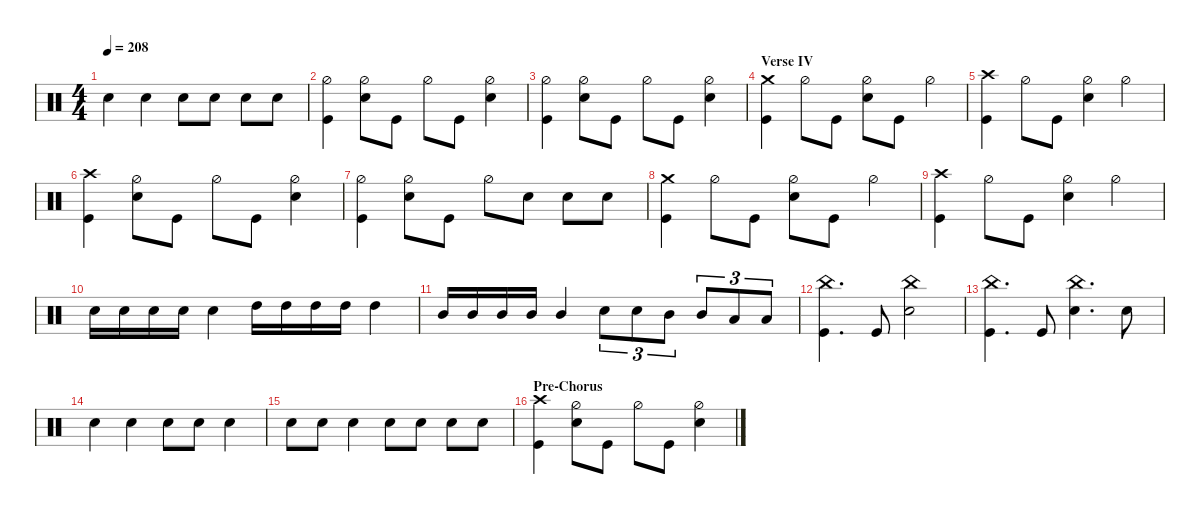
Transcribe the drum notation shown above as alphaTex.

\defaultSystemsLayout 4
\hideDynamics
\bracketExtendMode nobrackets
\singleTrackTrackNamePolicy hidden
\multiTrackTrackNamePolicy hidden
\otherSystemsTrackNameOrientation horizontal
\track ("Drums" "drm.") {multiBarRest instrument percussion}
\staff {score}
\articulation defaults
\ts (4 4)
\tempo 208
\clef neutral
\ks c "Snare (hit) 2".4{dy f beam Down} "Snare (hit) 2".4{beam Down} "Snare (hit) 2".8{beam Down} "Snare (hit) 2".8{beam Down} "Snare (hit) 2".8{beam Down} "Snare (hit) 2".8{beam Down}
|
("Kick (hit)" "Hi-Hat (half)").4{beam Down} ("Snare (hit) 2" "Hi-Hat (half)").8{beam Down} "Kick (hit)".8{beam Down} "Hi-Hat (half)".8{beam Down} "Kick (hit)".8{beam Down} ("Snare (hit) 2" "Hi-Hat (half)").4{beam Down} |
("Kick (hit)" "Hi-Hat (half)").4{beam Down} ("Snare (hit) 2" "Hi-Hat (half)").8{beam Down} "Kick (hit)".8{beam Down} "Hi-Hat (half)".8{beam Down} "Kick (hit)".8{beam Down} ("Snare (hit) 2" "Hi-Hat (half)").4{beam Down} |
\section ("" "Verse IV")
("Crash medium (hit)" "Kick (hit)").4{beam Down} "Hi-Hat (half)".8{beam Down} "Kick (hit)".8{beam Down} ("Hi-Hat (half)" "Snare (hit) 2").8{beam Down} "Kick (hit)".8{beam Down} "Hi-Hat (half)".4{beam Down} |
("Kick (hit)" "Crash high (hit)").4{beam Down} "Hi-Hat (half)".8{beam Down} "Kick (hit)".8{beam Down} ("Snare (hit) 2" "Hi-Hat (half)").4{beam Down} "Hi-Hat (half)".4{beam Down} |
("Crash high (hit)" "Kick (hit)").4{beam Down} ("Snare (hit) 2" "Hi-Hat (half)").8{beam Down} "Kick (hit)".8{beam Down} "Hi-Hat (half)".8{beam Down} "Kick (hit)".8{beam Down} ("Snare (hit) 2" "Hi-Hat (half)").4{beam Down} |
("Kick (hit)" "Hi-Hat (half)").4{beam Down} ("Snare (hit) 2" "Hi-Hat (half)").8{beam Down} "Kick (hit)".8{beam Down} "Hi-Hat (half)".8{beam Down} "Snare (hit) 2".8{beam Down} "Snare (hit) 2".8{beam Down} "Snare (hit) 2".8{beam Down} |
("Crash medium (hit)" "Kick (hit)").4{beam Down} "Hi-Hat (half)".8{beam Down} "Kick (hit)".8{beam Down} ("Hi-Hat (half)" "Snare (hit) 2").8{beam Down} "Kick (hit)".8{beam Down} "Hi-Hat (half)".4{beam Down} |
("Kick (hit)" "Crash high (hit)").4{beam Down} "Hi-Hat (half)".8{beam Down} "Kick (hit)".8{beam Down} ("Snare (hit) 2" "Hi-Hat (half)").4{beam Down} "Hi-Hat (half)".4{beam Down} |
"Snare (hit) 2".16{beam Down} "Snare (hit) 2".16{beam Down} "Snare (hit) 2".16{beam Down} "Snare (hit) 2".16{beam Down} "Snare (hit) 2".4{beam Down} "High Tom (hit)".16{dy ff beam Down} "High Tom (hit)".16{beam Down} "High Tom (hit)".16{beam Down} "High Tom (hit)".16{beam Down} "High Tom (hit)".4{beam Down} |
"Mid Tom (hit)".16{beam Up} "Mid Tom (hit)".16{beam Up} "Mid Tom (hit)".16{beam Up} "Mid Tom (hit)".16{beam Up} "Mid Tom (hit)".4{beam Up} "Snare (hit) 2".8{tu (3 2) dy f beam Down} "Snare (hit) 2".8{tu (3 2) beam Down} "Mid Tom (hit)".8{tu (3 2) dy ff beam Down} "Mid Tom (hit)".8{tu (3 2) beam Up} "Low Tom (hit)".8{tu (3 2) beam Up} "Low Tom (hit)".8{tu (3 2) beam Up} |
("China (hit)" "Kick (hit)").4{d dy f beam Down} "Kick (hit)".8{beam Up} ("Snare (hit) 2" "China (hit)").2{beam Down} |
("China (hit)" "Kick (hit)").4{d beam Down} "Kick (hit)".8{beam Up} ("Snare (hit) 2" "China (hit)").4{d beam Down} "Snare (hit) 2".8{beam Down} |
"Snare (hit) 2".4{beam Down} "Snare (hit) 2".4{beam Down} "Snare (hit) 2".8{beam Down} "Snare (hit) 2".8{beam Down} "Snare (hit) 2".4{beam Down} |
"Snare (hit) 2".8{beam Down} "Snare (hit) 2".8{beam Down} "Snare (hit) 2".4{beam Down} "Snare (hit) 2".8{beam Down} "Snare (hit) 2".8{beam Down} "Snare (hit) 2".8{beam Down} "Snare (hit) 2".8{beam Down} |
\section ("" "Pre-Chorus")
("Crash high (hit)" "Kick (hit)").4{beam Down} ("Snare (hit) 2" "Hi-Hat (half)").8{beam Down} "Kick (hit)".8{beam Down} "Hi-Hat (half)".8{beam Down} "Kick (hit)".8{beam Down} ("Snare (hit) 2" "Hi-Hat (half)").4{beam Down}
